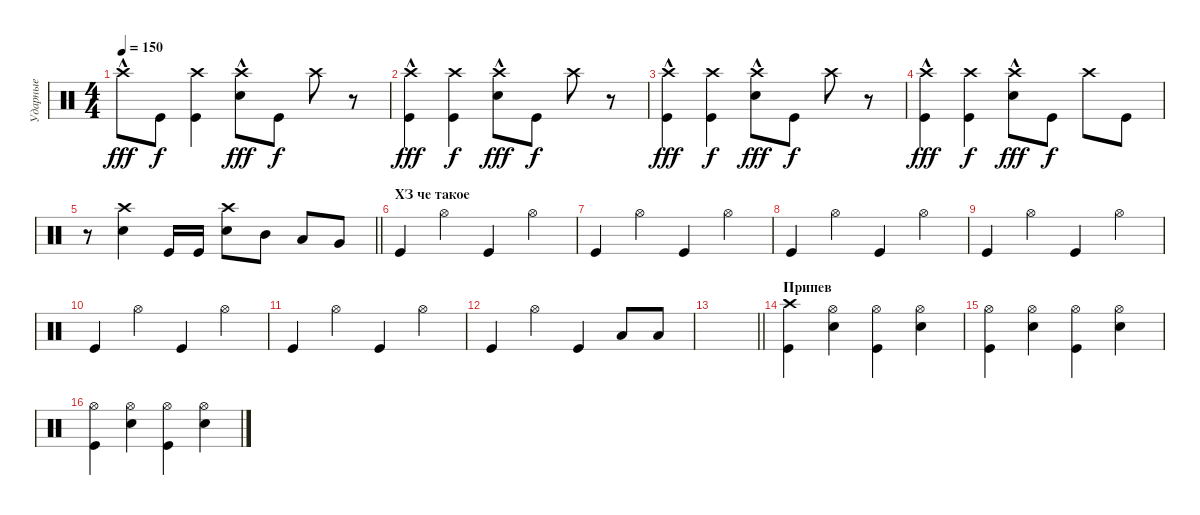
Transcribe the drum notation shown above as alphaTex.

\track ("Ударные" "Ударные") {instrument percussion}
\staff {score}
\articulation defaults
\ts (4 4)
\tempo 150
\clef neutral
\ks c "Crash high (hit)"{hac}.8{dy fff} "Kick (hit)".8{dy f}
("Crash high (hit)" "Kick (hit)").4 ("Crash high (hit)"{hac} "Snare (hit) 2").8{dy fff} "Kick (hit)".8{dy f} "Crash high (hit)".8 r.8 |
("Crash high (hit)"{hac} "Kick (hit)").4{dy fff} ("Crash high (hit)" "Kick (hit)").4{dy f} ("Crash high (hit)"{hac} "Snare (hit) 2").8{dy fff} "Kick (hit)".8{dy f} "Crash high (hit)".8 r.8 |
("Crash high (hit)"{hac} "Kick (hit)").4{dy fff} ("Crash high (hit)" "Kick (hit)").4{dy f} ("Crash high (hit)"{hac} "Snare (hit) 2").8{dy fff} "Kick (hit)".8{dy f} "Crash high (hit)".8 r.8 |
("Crash high (hit)"{hac} "Kick (hit)").4{dy fff} ("Crash high (hit)" "Kick (hit)").4{dy f} ("Crash high (hit)"{hac} "Snare (hit) 2").8{dy fff} "Kick (hit)".8{dy f} "Crash high (hit)".8 "Kick (hit)".8 |
\barLineRight lightlight
r.8 ("Crash high (hit)" "Snare (hit) 2").4 "Kick (hit)".16 "Kick (hit)".16 ("Crash high (hit)" "Snare (hit) 2").8 "Mid Tom (hit)".8 "Low Tom (hit)".8 "Very Low Tom (hit)".8 |
\section ("" "ХЗ че такое")
"Kick (hit)".4 "Hi-Hat (open)".4 "Kick (hit)".4 "Hi-Hat (open)".4 |
"Kick (hit)".4 "Hi-Hat (open)".4 "Kick (hit)".4 "Hi-Hat (open)".4 |
"Kick (hit)".4 "Hi-Hat (open)".4 "Kick (hit)".4 "Hi-Hat (open)".4 |
"Kick (hit)".4 "Hi-Hat (open)".4 "Kick (hit)".4 "Hi-Hat (open)".4 |
"Kick (hit)".4 "Hi-Hat (open)".4 "Kick (hit)".4 "Hi-Hat (open)".4 |
"Kick (hit)".4 "Hi-Hat (open)".4 "Kick (hit)".4 "Hi-Hat (open)".4 |
"Kick (hit)".4 "Hi-Hat (open)".4 "Kick (hit)".4 "Low Tom (hit)".8 "Low Tom (hit)".8 |
\barLineRight lightlight
|
\section ("" "Припев")
("Crash high (hit)" "Kick (hit)").4 ("Hi-Hat (open)" "Snare (hit) 2").4 ("Hi-Hat (open)" "Kick (hit)").4 ("Hi-Hat (open)" "Snare (hit) 2").4 |
("Hi-Hat (open)" "Kick (hit)").4 ("Hi-Hat (open)" "Snare (hit) 2").4 ("Hi-Hat (open)" "Kick (hit)").4 ("Hi-Hat (open)" "Snare (hit) 2").4 |
("Hi-Hat (open)" "Kick (hit)").4 ("Hi-Hat (open)" "Snare (hit) 2").4 ("Hi-Hat (open)" "Kick (hit)").4 ("Hi-Hat (open)" "Snare (hit) 2").4
